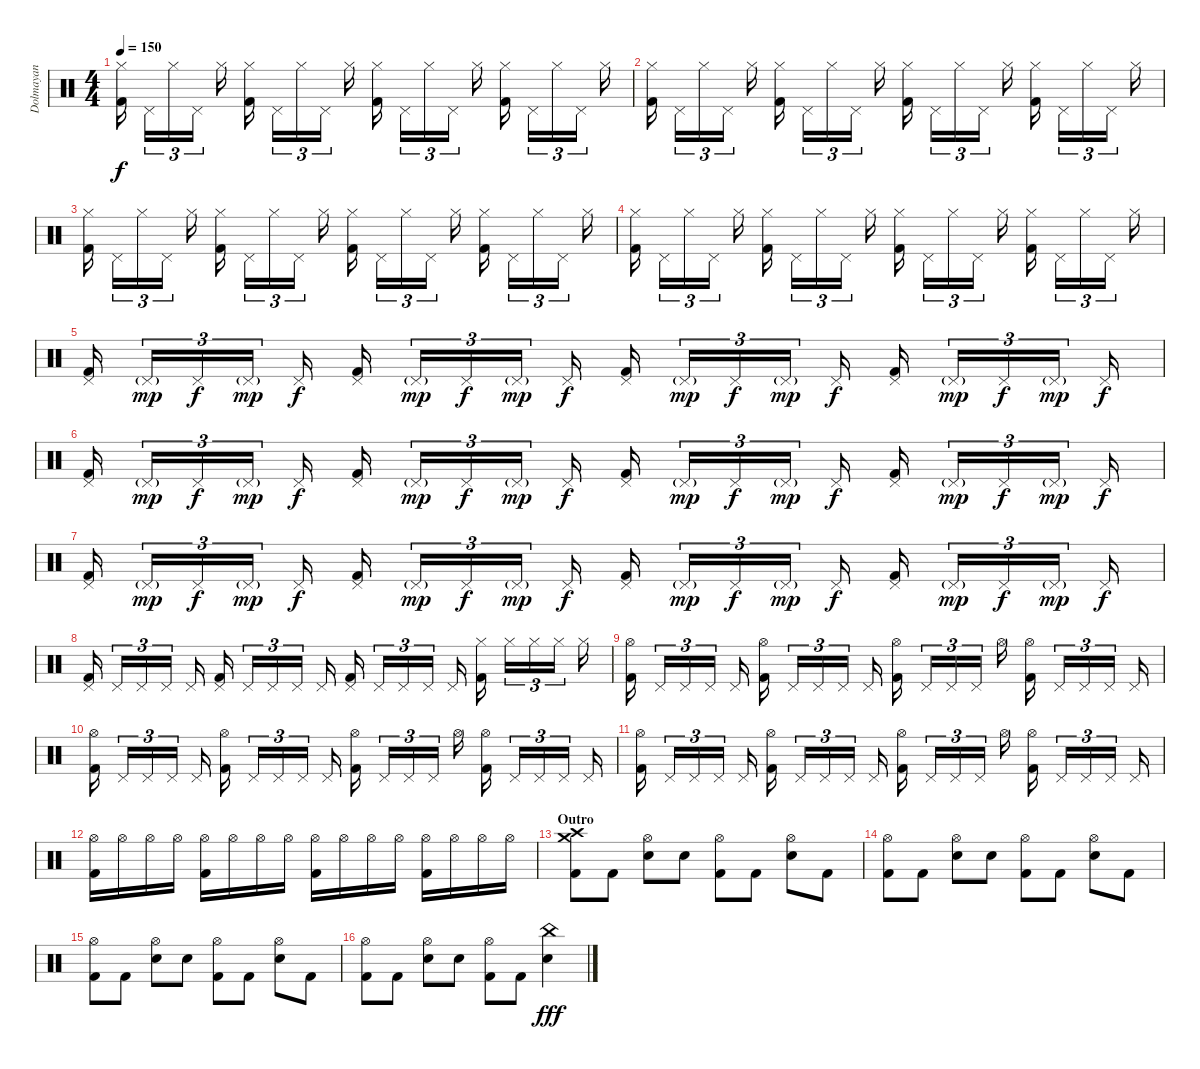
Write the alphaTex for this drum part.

\track ("Dolmayan" "Dolmayan") {instrument percussion}
\staff {score}
\articulation defaults
\ts (4 4)
\tempo 150
\clef neutral
\ks c
("Hi-Hat (closed)" "Kick (hit) 2").16{dy f} "Pedal Hi-Hat (hit)".16{tu (3 2)} "Hi-Hat (closed)".16{tu (3 2)} "Pedal Hi-Hat (hit)".16{tu (3 2)} "Hi-Hat (closed)".16 ("Hi-Hat (closed)" "Kick (hit) 2").16 "Pedal Hi-Hat (hit)".16{tu (3 2)} "Hi-Hat (closed)".16{tu (3 2)} "Pedal Hi-Hat (hit)".16{tu (3 2)} "Hi-Hat (closed)".16 ("Hi-Hat (closed)" "Kick (hit) 2").16 "Pedal Hi-Hat (hit)".16{tu (3 2)} "Hi-Hat (closed)".16{tu (3 2)} "Pedal Hi-Hat (hit)".16{tu (3 2)} "Hi-Hat (closed)".16 ("Hi-Hat (closed)" "Kick (hit) 2").16 "Pedal Hi-Hat (hit)".16{tu (3 2)} "Hi-Hat (closed)".16{tu (3 2)} "Pedal Hi-Hat (hit)".16{tu (3 2)} "Hi-Hat (closed)".16 |
("Hi-Hat (closed)" "Kick (hit) 2").16 "Pedal Hi-Hat (hit)".16{tu (3 2)} "Hi-Hat (closed)".16{tu (3 2)} "Pedal Hi-Hat (hit)".16{tu (3 2)} "Hi-Hat (closed)".16 ("Hi-Hat (closed)" "Kick (hit) 2").16 "Pedal Hi-Hat (hit)".16{tu (3 2)} "Hi-Hat (closed)".16{tu (3 2)} "Pedal Hi-Hat (hit)".16{tu (3 2)} "Hi-Hat (closed)".16 ("Hi-Hat (closed)" "Kick (hit) 2").16 "Pedal Hi-Hat (hit)".16{tu (3 2)} "Hi-Hat (closed)".16{tu (3 2)} "Pedal Hi-Hat (hit)".16{tu (3 2)} "Hi-Hat (closed)".16 ("Hi-Hat (closed)" "Kick (hit) 2").16 "Pedal Hi-Hat (hit)".16{tu (3 2)} "Hi-Hat (closed)".16{tu (3 2)} "Pedal Hi-Hat (hit)".16{tu (3 2)} "Hi-Hat (closed)".16 |
("Hi-Hat (closed)" "Kick (hit) 2").16 "Pedal Hi-Hat (hit)".16{tu (3 2)} "Hi-Hat (closed)".16{tu (3 2)} "Pedal Hi-Hat (hit)".16{tu (3 2)} "Hi-Hat (closed)".16 ("Hi-Hat (closed)" "Kick (hit) 2").16 "Pedal Hi-Hat (hit)".16{tu (3 2)} "Hi-Hat (closed)".16{tu (3 2)} "Pedal Hi-Hat (hit)".16{tu (3 2)} "Hi-Hat (closed)".16 ("Hi-Hat (closed)" "Kick (hit) 2").16 "Pedal Hi-Hat (hit)".16{tu (3 2)} "Hi-Hat (closed)".16{tu (3 2)} "Pedal Hi-Hat (hit)".16{tu (3 2)} "Hi-Hat (closed)".16 ("Hi-Hat (closed)" "Kick (hit) 2").16 "Pedal Hi-Hat (hit)".16{tu (3 2)} "Hi-Hat (closed)".16{tu (3 2)} "Pedal Hi-Hat (hit)".16{tu (3 2)} "Hi-Hat (closed)".16 |
("Hi-Hat (closed)" "Kick (hit) 2").16 "Pedal Hi-Hat (hit)".16{tu (3 2)} "Hi-Hat (closed)".16{tu (3 2)} "Pedal Hi-Hat (hit)".16{tu (3 2)} "Hi-Hat (closed)".16 ("Hi-Hat (closed)" "Kick (hit) 2").16 "Pedal Hi-Hat (hit)".16{tu (3 2)} "Hi-Hat (closed)".16{tu (3 2)} "Pedal Hi-Hat (hit)".16{tu (3 2)} "Hi-Hat (closed)".16 ("Hi-Hat (closed)" "Kick (hit) 2").16 "Pedal Hi-Hat (hit)".16{tu (3 2)} "Hi-Hat (closed)".16{tu (3 2)} "Pedal Hi-Hat (hit)".16{tu (3 2)} "Hi-Hat (closed)".16 ("Hi-Hat (closed)" "Kick (hit) 2").16 "Pedal Hi-Hat (hit)".16{tu (3 2)} "Hi-Hat (closed)".16{tu (3 2)} "Pedal Hi-Hat (hit)".16{tu (3 2)} "Hi-Hat (closed)".16 |
("Pedal Hi-Hat (hit)" "Kick (hit) 2").16 "Pedal Hi-Hat (hit)"{g}.16{tu (3 2) dy mp} "Pedal Hi-Hat (hit)".16{tu (3 2) dy f} "Pedal Hi-Hat (hit)"{g}.16{tu (3 2) dy mp} "Pedal Hi-Hat (hit)".16{dy f} ("Pedal Hi-Hat (hit)" "Kick (hit) 2").16 "Pedal Hi-Hat (hit)"{g}.16{tu (3 2) dy mp} "Pedal Hi-Hat (hit)".16{tu (3 2) dy f} "Pedal Hi-Hat (hit)"{g}.16{tu (3 2) dy mp} "Pedal Hi-Hat (hit)".16{dy f} ("Pedal Hi-Hat (hit)" "Kick (hit) 2").16 "Pedal Hi-Hat (hit)"{g}.16{tu (3 2) dy mp} "Pedal Hi-Hat (hit)".16{tu (3 2) dy f} "Pedal Hi-Hat (hit)"{g}.16{tu (3 2) dy mp} "Pedal Hi-Hat (hit)".16{dy f} ("Pedal Hi-Hat (hit)" "Kick (hit) 2").16 "Pedal Hi-Hat (hit)"{g}.16{tu (3 2) dy mp} "Pedal Hi-Hat (hit)".16{tu (3 2) dy f} "Pedal Hi-Hat (hit)"{g}.16{tu (3 2) dy mp} "Pedal Hi-Hat (hit)".16{dy f} |
("Pedal Hi-Hat (hit)" "Kick (hit) 2").16 "Pedal Hi-Hat (hit)"{g}.16{tu (3 2) dy mp} "Pedal Hi-Hat (hit)".16{tu (3 2) dy f} "Pedal Hi-Hat (hit)"{g}.16{tu (3 2) dy mp} "Pedal Hi-Hat (hit)".16{dy f} ("Pedal Hi-Hat (hit)" "Kick (hit) 2").16 "Pedal Hi-Hat (hit)"{g}.16{tu (3 2) dy mp} "Pedal Hi-Hat (hit)".16{tu (3 2) dy f} "Pedal Hi-Hat (hit)"{g}.16{tu (3 2) dy mp} "Pedal Hi-Hat (hit)".16{dy f} ("Pedal Hi-Hat (hit)" "Kick (hit) 2").16 "Pedal Hi-Hat (hit)"{g}.16{tu (3 2) dy mp} "Pedal Hi-Hat (hit)".16{tu (3 2) dy f} "Pedal Hi-Hat (hit)"{g}.16{tu (3 2) dy mp} "Pedal Hi-Hat (hit)".16{dy f} ("Pedal Hi-Hat (hit)" "Kick (hit) 2").16 "Pedal Hi-Hat (hit)"{g}.16{tu (3 2) dy mp} "Pedal Hi-Hat (hit)".16{tu (3 2) dy f} "Pedal Hi-Hat (hit)"{g}.16{tu (3 2) dy mp} "Pedal Hi-Hat (hit)".16{dy f} |
("Pedal Hi-Hat (hit)" "Kick (hit) 2").16 "Pedal Hi-Hat (hit)"{g}.16{tu (3 2) dy mp} "Pedal Hi-Hat (hit)".16{tu (3 2) dy f} "Pedal Hi-Hat (hit)"{g}.16{tu (3 2) dy mp} "Pedal Hi-Hat (hit)".16{dy f} ("Pedal Hi-Hat (hit)" "Kick (hit) 2").16 "Pedal Hi-Hat (hit)"{g}.16{tu (3 2) dy mp} "Pedal Hi-Hat (hit)".16{tu (3 2) dy f} "Pedal Hi-Hat (hit)"{g}.16{tu (3 2) dy mp} "Pedal Hi-Hat (hit)".16{dy f} ("Pedal Hi-Hat (hit)" "Kick (hit) 2").16 "Pedal Hi-Hat (hit)"{g}.16{tu (3 2) dy mp} "Pedal Hi-Hat (hit)".16{tu (3 2) dy f} "Pedal Hi-Hat (hit)"{g}.16{tu (3 2) dy mp} "Pedal Hi-Hat (hit)".16{dy f} ("Pedal Hi-Hat (hit)" "Kick (hit) 2").16 "Pedal Hi-Hat (hit)"{g}.16{tu (3 2) dy mp} "Pedal Hi-Hat (hit)".16{tu (3 2) dy f} "Pedal Hi-Hat (hit)"{g}.16{tu (3 2) dy mp} "Pedal Hi-Hat (hit)".16{dy f} |
("Pedal Hi-Hat (hit)" "Kick (hit) 2").16 "Pedal Hi-Hat (hit)".16{tu (3 2)} "Pedal Hi-Hat (hit)".16{tu (3 2)} "Pedal Hi-Hat (hit)".16{tu (3 2)} "Pedal Hi-Hat (hit)".16 ("Pedal Hi-Hat (hit)" "Kick (hit) 2").16 "Pedal Hi-Hat (hit)".16{tu (3 2)} "Pedal Hi-Hat (hit)".16{tu (3 2)} "Pedal Hi-Hat (hit)".16{tu (3 2)} "Pedal Hi-Hat (hit)".16 ("Pedal Hi-Hat (hit)" "Kick (hit) 2").16 "Pedal Hi-Hat (hit)".16{tu (3 2)} "Pedal Hi-Hat (hit)".16{tu (3 2)} "Pedal Hi-Hat (hit)".16{tu (3 2)} "Pedal Hi-Hat (hit)".16 ("Hi-Hat (closed)" "Kick (hit) 2").16 "Hi-Hat (closed)".16{tu (3 2)} "Hi-Hat (closed)".16{tu (3 2)} "Hi-Hat (closed)".16{tu (3 2)} "Hi-Hat (closed)".16 |
("Hi-Hat (open)" "Kick (hit) 2").16 "Pedal Hi-Hat (hit)".16{tu (3 2)} "Pedal Hi-Hat (hit)".16{tu (3 2)} "Pedal Hi-Hat (hit)".16{tu (3 2)} "Pedal Hi-Hat (hit)".16 ("Hi-Hat (open)" "Kick (hit) 2").16 "Pedal Hi-Hat (hit)".16{tu (3 2)} "Pedal Hi-Hat (hit)".16{tu (3 2)} "Pedal Hi-Hat (hit)".16{tu (3 2)} "Pedal Hi-Hat (hit)".16 ("Hi-Hat (open)" "Kick (hit) 2").16 "Pedal Hi-Hat (hit)".16{tu (3 2)} "Pedal Hi-Hat (hit)".16{tu (3 2)} "Pedal Hi-Hat (hit)".16{tu (3 2)} "Hi-Hat (open)".16 ("Hi-Hat (open)" "Kick (hit) 2").16 "Pedal Hi-Hat (hit)".16{tu (3 2)} "Pedal Hi-Hat (hit)".16{tu (3 2)} "Pedal Hi-Hat (hit)".16{tu (3 2)} "Pedal Hi-Hat (hit)".16 |
("Hi-Hat (open)" "Kick (hit) 2").16 "Pedal Hi-Hat (hit)".16{tu (3 2)} "Pedal Hi-Hat (hit)".16{tu (3 2)} "Pedal Hi-Hat (hit)".16{tu (3 2)} "Pedal Hi-Hat (hit)".16 ("Hi-Hat (open)" "Kick (hit) 2").16 "Pedal Hi-Hat (hit)".16{tu (3 2)} "Pedal Hi-Hat (hit)".16{tu (3 2)} "Pedal Hi-Hat (hit)".16{tu (3 2)} "Pedal Hi-Hat (hit)".16 ("Hi-Hat (open)" "Kick (hit) 2").16 "Pedal Hi-Hat (hit)".16{tu (3 2)} "Pedal Hi-Hat (hit)".16{tu (3 2)} "Pedal Hi-Hat (hit)".16{tu (3 2)} "Hi-Hat (open)".16 ("Hi-Hat (open)" "Kick (hit) 2").16 "Pedal Hi-Hat (hit)".16{tu (3 2)} "Pedal Hi-Hat (hit)".16{tu (3 2)} "Pedal Hi-Hat (hit)".16{tu (3 2)} "Pedal Hi-Hat (hit)".16 |
("Hi-Hat (open)" "Kick (hit) 2").16 "Pedal Hi-Hat (hit)".16{tu (3 2)} "Pedal Hi-Hat (hit)".16{tu (3 2)} "Pedal Hi-Hat (hit)".16{tu (3 2)} "Pedal Hi-Hat (hit)".16 ("Hi-Hat (open)" "Kick (hit) 2").16 "Pedal Hi-Hat (hit)".16{tu (3 2)} "Pedal Hi-Hat (hit)".16{tu (3 2)} "Pedal Hi-Hat (hit)".16{tu (3 2)} "Pedal Hi-Hat (hit)".16 ("Hi-Hat (open)" "Kick (hit) 2").16 "Pedal Hi-Hat (hit)".16{tu (3 2)} "Pedal Hi-Hat (hit)".16{tu (3 2)} "Pedal Hi-Hat (hit)".16{tu (3 2)} "Hi-Hat (open)".16 ("Hi-Hat (open)" "Kick (hit) 2").16 "Pedal Hi-Hat (hit)".16{tu (3 2)} "Pedal Hi-Hat (hit)".16{tu (3 2)} "Pedal Hi-Hat (hit)".16{tu (3 2)} "Pedal Hi-Hat (hit)".16 |
("Hi-Hat (open)" "Kick (hit) 2").16 "Hi-Hat (open)".16 "Hi-Hat (open)".16 "Hi-Hat (open)".16 ("Hi-Hat (open)" "Kick (hit) 2").16 "Hi-Hat (open)".16 "Hi-Hat (open)".16 "Hi-Hat (open)".16 ("Hi-Hat (open)" "Kick (hit) 2").16 "Hi-Hat (open)".16 "Hi-Hat (open)".16 "Hi-Hat (open)".16 ("Hi-Hat (open)" "Kick (hit) 2").16 "Hi-Hat (open)".16 "Hi-Hat (open)".16 "Hi-Hat (open)".16 |
\section ("" "Outro")
("Crash high (hit)" "Crash medium (hit)" "Kick (hit) 2").8 "Kick (hit) 2".8 ("Hi-Hat (open)" "Electric Snare (hit)").8 "Electric Snare (hit)".8 ("Hi-Hat (open)" "Kick (hit) 2").8 "Kick (hit) 2".8 ("Hi-Hat (open)" "Electric Snare (hit)").8 "Kick (hit) 2".8 |
("Hi-Hat (open)" "Kick (hit) 2").8 "Kick (hit) 2".8 ("Hi-Hat (open)" "Electric Snare (hit)").8 "Electric Snare (hit)".8 ("Hi-Hat (open)" "Kick (hit) 2").8 "Kick (hit) 2".8 ("Hi-Hat (open)" "Electric Snare (hit)").8 "Kick (hit) 2".8 |
("Hi-Hat (open)" "Kick (hit) 2").8 "Kick (hit) 2".8 ("Hi-Hat (open)" "Electric Snare (hit)").8 "Electric Snare (hit)".8 ("Hi-Hat (open)" "Kick (hit) 2").8 "Kick (hit) 2".8 ("Hi-Hat (open)" "Electric Snare (hit)").8 "Kick (hit) 2".8 |
("Hi-Hat (open)" "Kick (hit) 2").8 "Kick (hit) 2".8 ("Hi-Hat (open)" "Electric Snare (hit)").8 "Electric Snare (hit)".8 ("Hi-Hat (open)" "Kick (hit) 2").8 "Kick (hit) 2".8 ("China (hit)" "Electric Snare (hit)").4{dy fff}
